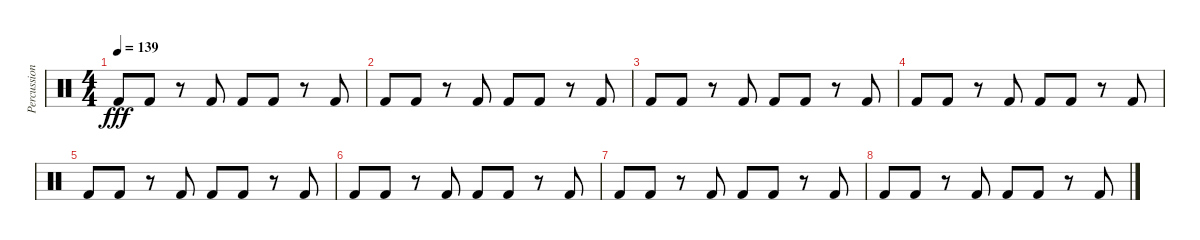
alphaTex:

\track ("Percussion" "Percussion") {instrument percussion}
\staff {score}
\articulation defaults
\ts (4 4)
\tempo 139
\clef neutral
\ks c "Kick (hit) 2".8{dy fff} "Kick (hit) 2".8
r.8 "Kick (hit) 2".8 "Kick (hit) 2".8 "Kick (hit) 2".8 r.8 "Kick (hit) 2".8 |
"Kick (hit) 2".8 "Kick (hit) 2".8 r.8 "Kick (hit) 2".8 "Kick (hit) 2".8 "Kick (hit) 2".8 r.8 "Kick (hit) 2".8 |
"Kick (hit) 2".8 "Kick (hit) 2".8 r.8 "Kick (hit) 2".8 "Kick (hit) 2".8 "Kick (hit) 2".8 r.8 "Kick (hit) 2".8 |
"Kick (hit) 2".8 "Kick (hit) 2".8 r.8 "Kick (hit) 2".8 "Kick (hit) 2".8 "Kick (hit) 2".8 r.8 "Kick (hit) 2".8 |
"Kick (hit) 2".8 "Kick (hit) 2".8 r.8 "Kick (hit) 2".8 "Kick (hit) 2".8 "Kick (hit) 2".8 r.8 "Kick (hit) 2".8 |
"Kick (hit) 2".8 "Kick (hit) 2".8 r.8 "Kick (hit) 2".8 "Kick (hit) 2".8 "Kick (hit) 2".8 r.8 "Kick (hit) 2".8 |
"Kick (hit) 2".8 "Kick (hit) 2".8 r.8 "Kick (hit) 2".8 "Kick (hit) 2".8 "Kick (hit) 2".8 r.8 "Kick (hit) 2".8 |
"Kick (hit) 2".8 "Kick (hit) 2".8 r.8 "Kick (hit) 2".8 "Kick (hit) 2".8 "Kick (hit) 2".8 r.8 "Kick (hit) 2".8
